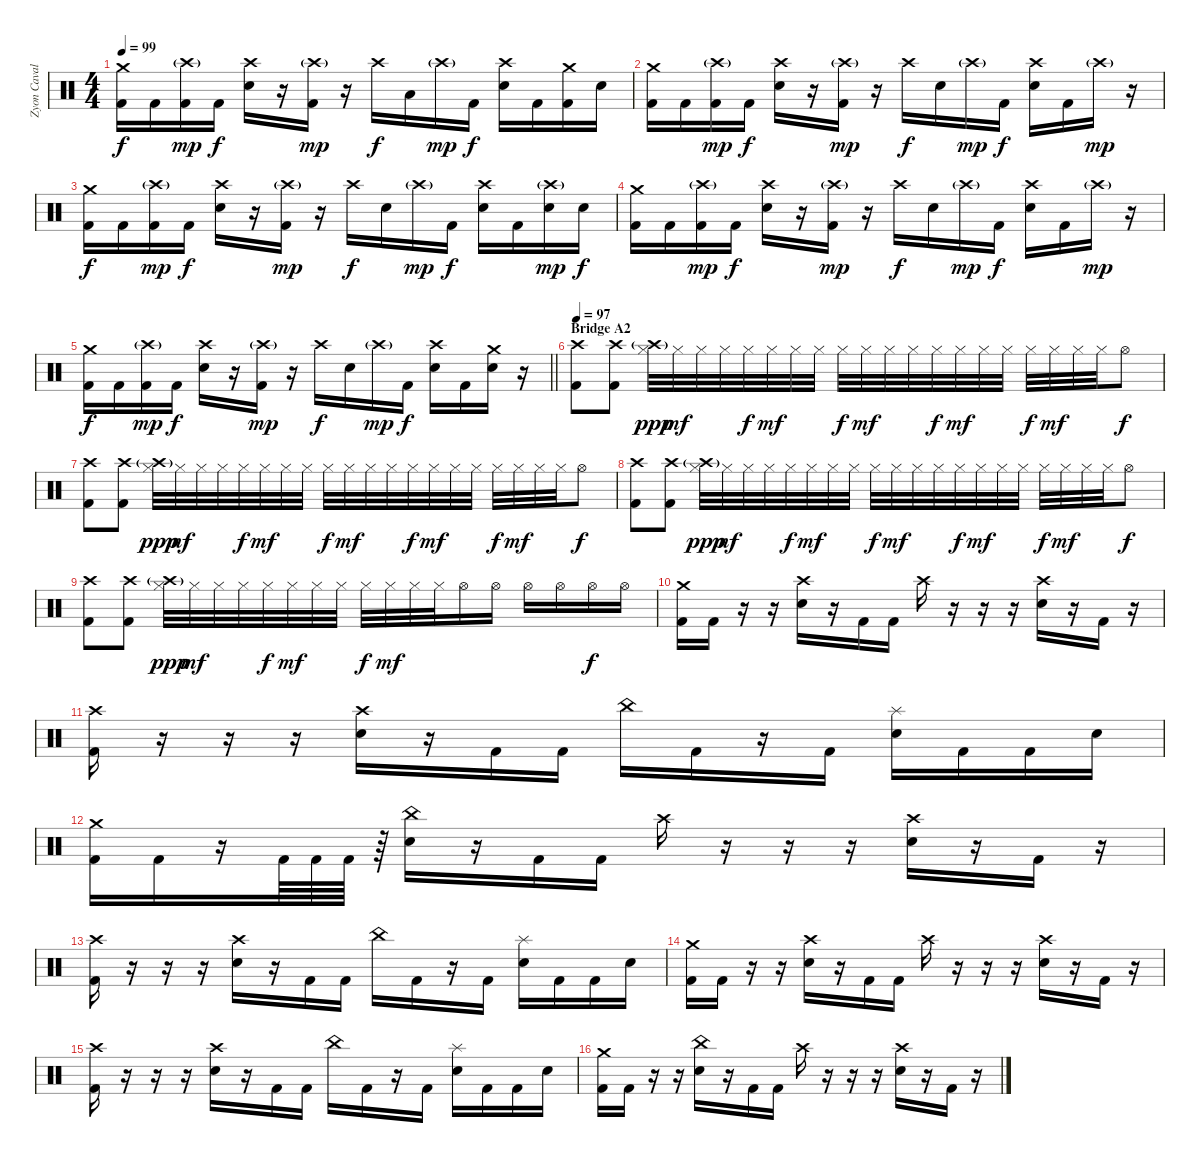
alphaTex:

\track ("Zyon Cavalera" "Zyon Caval") {instrument percussion}
\staff {score}
\articulation defaults
\ts (4 4)
\tempo 99
\clef neutral
\ks c
("Crash medium (hit)" "Kick (hit) 2").16{dy f} "Kick (hit) 2".16 ("Crash high (hit)"{g} "Kick (hit) 2").16{dy mp} "Kick (hit) 2".16{dy f} ("Crash high (hit)" "Snare (hit) 2").16 r.16 ("Crash high (hit)"{g} "Kick (hit) 2").16{dy mp} r.16 "Crash high (hit)".16{dy f} "Low Tom (hit)".16 "Crash high (hit)"{g}.16{dy mp} "Kick (hit) 2".16{dy f} ("Crash high (hit)" "Snare (hit) 2").16 "Kick (hit) 2".16 ("Crash medium (hit)" "Kick (hit) 2").16 "Snare (hit) 2".16 |
("Crash medium (hit)" "Kick (hit) 2").16 "Kick (hit) 2".16 ("Crash high (hit)"{g} "Kick (hit) 2").16{dy mp} "Kick (hit) 2".16{dy f} ("Crash high (hit)" "Snare (hit) 2").16 r.16 ("Crash high (hit)"{g} "Kick (hit) 2").16{dy mp} r.16 "Crash high (hit)".16{dy f} "Snare (hit) 2".16 "Crash high (hit)"{g}.16{dy mp} "Kick (hit) 2".16{dy f} ("Crash high (hit)" "Snare (hit) 2").16 "Kick (hit) 2".16 "Crash high (hit)"{g}.16{dy mp} r.16 |
("Crash medium (hit)" "Kick (hit) 2").16{dy f} "Kick (hit) 2".16 ("Crash high (hit)"{g} "Kick (hit) 2").16{dy mp} "Kick (hit) 2".16{dy f} ("Crash high (hit)" "Snare (hit) 2").16 r.16 ("Crash high (hit)"{g} "Kick (hit) 2").16{dy mp} r.16 "Crash high (hit)".16{dy f} "Snare (hit) 2".16 "Crash high (hit)"{g}.16{dy mp} "Kick (hit) 2".16{dy f} ("Crash high (hit)" "Snare (hit) 2").16 "Kick (hit) 2".16 ("Crash high (hit)"{g} "Snare (hit) 2").16{dy mp} "Snare (hit) 2".16{dy f} |
("Crash medium (hit)" "Kick (hit) 2").16 "Kick (hit) 2".16 ("Crash high (hit)"{g} "Kick (hit) 2").16{dy mp} "Kick (hit) 2".16{dy f} ("Crash high (hit)" "Snare (hit) 2").16 r.16 ("Crash high (hit)"{g} "Kick (hit) 2").16{dy mp} r.16 "Crash high (hit)".16{dy f} "Snare (hit) 2".16 "Crash high (hit)"{g}.16{dy mp} "Kick (hit) 2".16{dy f} ("Crash high (hit)" "Snare (hit) 2").16 "Kick (hit) 2".16 "Crash high (hit)"{g}.16{dy mp} r.16 |
\barLineRight lightlight
("Crash medium (hit)" "Kick (hit) 2").16{dy f} "Kick (hit) 2".16 ("Crash high (hit)"{g} "Kick (hit) 2").16{dy mp} "Kick (hit) 2".16{dy f} ("Crash high (hit)" "Snare (hit) 2").16 r.16 ("Crash high (hit)"{g} "Kick (hit) 2").16{dy mp} r.16 "Crash high (hit)".16{dy f} "Snare (hit) 2".16 "Crash high (hit)"{g}.16{dy mp} "Kick (hit) 2".16{dy f} ("Crash high (hit)" "Snare (hit) 2").16 "Kick (hit) 2".16 ("Crash medium (hit)" "Snare (hit) 2").16 r.16 |
\section ("" "Bridge A2")
\tempo 97
("Crash high (hit)" "Kick (hit) 2").8 ("Crash high (hit)" "Kick (hit) 2").8 ("Crash high (hit)"{g} "Hi-Hat (closed)").32{dy ppp} "Hi-Hat (closed)".32{dy mf} "Hi-Hat (closed)".32 "Hi-Hat (closed)".32 "Hi-Hat (closed)".32{dy f} "Hi-Hat (closed)".32{dy mf} "Hi-Hat (closed)".32 "Hi-Hat (closed)".32 "Hi-Hat (closed)".32{dy f} "Hi-Hat (closed)".32{dy mf} "Hi-Hat (closed)".32 "Hi-Hat (closed)".32 "Hi-Hat (closed)".32{dy f} "Hi-Hat (closed)".32{dy mf} "Hi-Hat (closed)".32 "Hi-Hat (closed)".32 "Hi-Hat (closed)".32{dy f} "Hi-Hat (closed)".32{dy mf} "Hi-Hat (closed)".32 "Hi-Hat (closed)".32 "Hi-Hat (open)".8{dy f} |
("Crash high (hit)" "Kick (hit) 2").8 ("Crash high (hit)" "Kick (hit) 2").8 ("Crash high (hit)"{g} "Hi-Hat (closed)").32{dy ppp} "Hi-Hat (closed)".32{dy mf} "Hi-Hat (closed)".32 "Hi-Hat (closed)".32 "Hi-Hat (closed)".32{dy f} "Hi-Hat (closed)".32{dy mf} "Hi-Hat (closed)".32 "Hi-Hat (closed)".32 "Hi-Hat (closed)".32{dy f} "Hi-Hat (closed)".32{dy mf} "Hi-Hat (closed)".32 "Hi-Hat (closed)".32 "Hi-Hat (closed)".32{dy f} "Hi-Hat (closed)".32{dy mf} "Hi-Hat (closed)".32 "Hi-Hat (closed)".32 "Hi-Hat (closed)".32{dy f} "Hi-Hat (closed)".32{dy mf} "Hi-Hat (closed)".32 "Hi-Hat (closed)".32 "Hi-Hat (open)".8{dy f} |
("Crash high (hit)" "Kick (hit) 2").8 ("Crash high (hit)" "Kick (hit) 2").8 ("Crash high (hit)"{g} "Hi-Hat (closed)").32{dy ppp} "Hi-Hat (closed)".32{dy mf} "Hi-Hat (closed)".32 "Hi-Hat (closed)".32 "Hi-Hat (closed)".32{dy f} "Hi-Hat (closed)".32{dy mf} "Hi-Hat (closed)".32 "Hi-Hat (closed)".32 "Hi-Hat (closed)".32{dy f} "Hi-Hat (closed)".32{dy mf} "Hi-Hat (closed)".32 "Hi-Hat (closed)".32 "Hi-Hat (closed)".32{dy f} "Hi-Hat (closed)".32{dy mf} "Hi-Hat (closed)".32 "Hi-Hat (closed)".32 "Hi-Hat (closed)".32{dy f} "Hi-Hat (closed)".32{dy mf} "Hi-Hat (closed)".32 "Hi-Hat (closed)".32 "Hi-Hat (open)".8{dy f} |
("Crash high (hit)" "Kick (hit) 2").8 ("Crash high (hit)" "Kick (hit) 2").8 ("Crash high (hit)"{g} "Hi-Hat (closed)").32{dy ppp} "Hi-Hat (closed)".32{dy mf} "Hi-Hat (closed)".32 "Hi-Hat (closed)".32 "Hi-Hat (closed)".32{dy f} "Hi-Hat (closed)".32{dy mf} "Hi-Hat (closed)".32 "Hi-Hat (closed)".32 "Hi-Hat (closed)".32{dy f} "Hi-Hat (closed)".32{dy mf} "Hi-Hat (closed)".32 "Hi-Hat (closed)".32 "Hi-Hat (open)".16 "Hi-Hat (open)".16 "Hi-Hat (open)".16 "Hi-Hat (open)".16 "Hi-Hat (open)".16{dy f} "Hi-Hat (open)".16 |
("Crash medium (hit)" "Kick (hit) 2").16 "Kick (hit) 2".16 r.16 r.16 ("Crash high (hit)" "Snare (hit) 2").16 r.16 "Kick (hit) 2".16 "Kick (hit) 2".16 "Crash high (hit)".16 r.16 r.16 r.16 ("Crash high (hit)" "Snare (hit) 2").16 r.16 "Kick (hit) 2".16 r.16 |
("Crash high (hit)" "Kick (hit) 2").16 r.16 r.16 r.16 ("Crash high (hit)" "Snare (hit) 2").16 r.16 "Kick (hit) 2".16 "Kick (hit) 2".16 "China (hit)".16 "Kick (hit) 2".16 r.16 "Kick (hit) 2".16 ("Splash (hit)" "Snare (hit) 2").16 "Kick (hit) 2".16 "Kick (hit) 2".16 "Snare (hit) 2".16 |
("Crash medium (hit)" "Kick (hit) 2").16 "Kick (hit) 2".16 r.16 "Kick (hit) 2".64 "Kick (hit) 2".64 "Kick (hit) 2".64 r.64 ("China (hit)" "Snare (hit) 2").16 r.16 "Kick (hit) 2".16 "Kick (hit) 2".16 "Crash high (hit)".16 r.16 r.16 r.16 ("Crash high (hit)" "Snare (hit) 2").16 r.16 "Kick (hit) 2".16 r.16 |
("Crash high (hit)" "Kick (hit) 2").16 r.16 r.16 r.16 ("Crash high (hit)" "Snare (hit) 2").16 r.16 "Kick (hit) 2".16 "Kick (hit) 2".16 "China (hit)".16 "Kick (hit) 2".16 r.16 "Kick (hit) 2".16 ("Splash (hit)" "Snare (hit) 2").16 "Kick (hit) 2".16 "Kick (hit) 2".16 "Snare (hit) 2".16 |
("Crash medium (hit)" "Kick (hit) 2").16 "Kick (hit) 2".16 r.16 r.16 ("Crash high (hit)" "Snare (hit) 2").16 r.16 "Kick (hit) 2".16 "Kick (hit) 2".16 "Crash high (hit)".16 r.16 r.16 r.16 ("Crash high (hit)" "Snare (hit) 2").16 r.16 "Kick (hit) 2".16 r.16 |
("Crash high (hit)" "Kick (hit) 2").16 r.16 r.16 r.16 ("Crash high (hit)" "Snare (hit) 2").16 r.16 "Kick (hit) 2".16 "Kick (hit) 2".16 "China (hit)".16 "Kick (hit) 2".16 r.16 "Kick (hit) 2".16 ("Splash (hit)" "Snare (hit) 2").16 "Kick (hit) 2".16 "Kick (hit) 2".16 "Snare (hit) 2".16 |
("Crash medium (hit)" "Kick (hit) 2").16 "Kick (hit) 2".16 r.16 r.16 ("China (hit)" "Snare (hit) 2").16 r.16 "Kick (hit) 2".16 "Kick (hit) 2".16 "Crash high (hit)".16 r.16 r.16 r.16 ("Crash high (hit)" "Snare (hit) 2").16 r.16 "Kick (hit) 2".16 r.16
